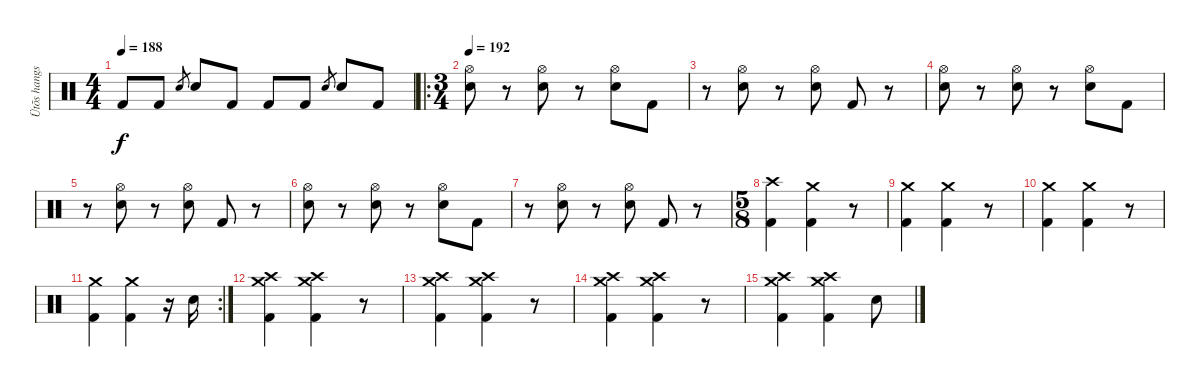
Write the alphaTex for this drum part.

\track ("Ütõs hangszer" "Ütõs hangs") {instrument percussion}
\staff {score}
\articulation defaults
\ts (4 4)
\tempo 188
\clef neutral
\ks c "Kick (hit) 2".8{dy f} "Kick (hit) 2".8 "Electric Snare (hit)".8{gr} "Electric Snare (hit)".8 "Kick (hit) 2".8 "Kick (hit) 2".8 "Kick (hit) 2".8 "Electric Snare (hit)".8{gr} "Electric Snare (hit)".8 "Kick (hit) 2".8
|
\ro
\ts (3 4)
\tempo 192
("Hi-Hat (open)" "Electric Snare (hit)").8 r.8 ("Hi-Hat (open)" "Electric Snare (hit)").8 r.8 ("Hi-Hat (open)" "Electric Snare (hit)").8 "Kick (hit) 2".8 |
r.8 ("Hi-Hat (open)" "Electric Snare (hit)").8 r.8 ("Hi-Hat (open)" "Electric Snare (hit)").8 "Kick (hit) 2".8 r.8 |
("Hi-Hat (open)" "Electric Snare (hit)").8 r.8 ("Hi-Hat (open)" "Electric Snare (hit)").8 r.8 ("Hi-Hat (open)" "Electric Snare (hit)").8 "Kick (hit) 2".8 |
r.8 ("Hi-Hat (open)" "Electric Snare (hit)").8 r.8 ("Hi-Hat (open)" "Electric Snare (hit)").8 "Kick (hit) 2".8 r.8 |
("Hi-Hat (open)" "Electric Snare (hit)").8 r.8 ("Hi-Hat (open)" "Electric Snare (hit)").8 r.8 ("Hi-Hat (open)" "Electric Snare (hit)").8 "Kick (hit) 2".8 |
r.8 ("Hi-Hat (open)" "Electric Snare (hit)").8 r.8 ("Hi-Hat (open)" "Electric Snare (hit)").8 "Kick (hit) 2".8 r.8 |
\ts (5 8)
("Crash high (hit)" "Kick (hit) 2").4 ("Crash medium (hit)" "Kick (hit) 2").4 r.8 |
("Crash medium (hit)" "Kick (hit) 2").4 ("Crash medium (hit)" "Kick (hit) 2").4 r.8 |
("Crash medium (hit)" "Kick (hit) 2").4 ("Crash medium (hit)" "Kick (hit) 2").4 r.8 |
\rc 2
("Crash medium (hit)" "Kick (hit) 2").4 ("Crash medium (hit)" "Kick (hit) 2").4 r.16 "Electric Snare (hit)".16 |
("Crash high (hit)" "Crash medium (hit)" "Kick (hit) 2").4 ("Crash high (hit)" "Crash medium (hit)" "Kick (hit) 2").4 r.8 |
("Crash high (hit)" "Crash medium (hit)" "Kick (hit) 2").4 ("Crash high (hit)" "Crash medium (hit)" "Kick (hit) 2").4 r.8 |
("Crash high (hit)" "Crash medium (hit)" "Kick (hit) 2").4 ("Crash high (hit)" "Crash medium (hit)" "Kick (hit) 2").4 r.8 |
("Crash high (hit)" "Crash medium (hit)" "Kick (hit) 2").4 ("Crash high (hit)" "Crash medium (hit)" "Kick (hit) 2").4 "Electric Snare (hit)".8
